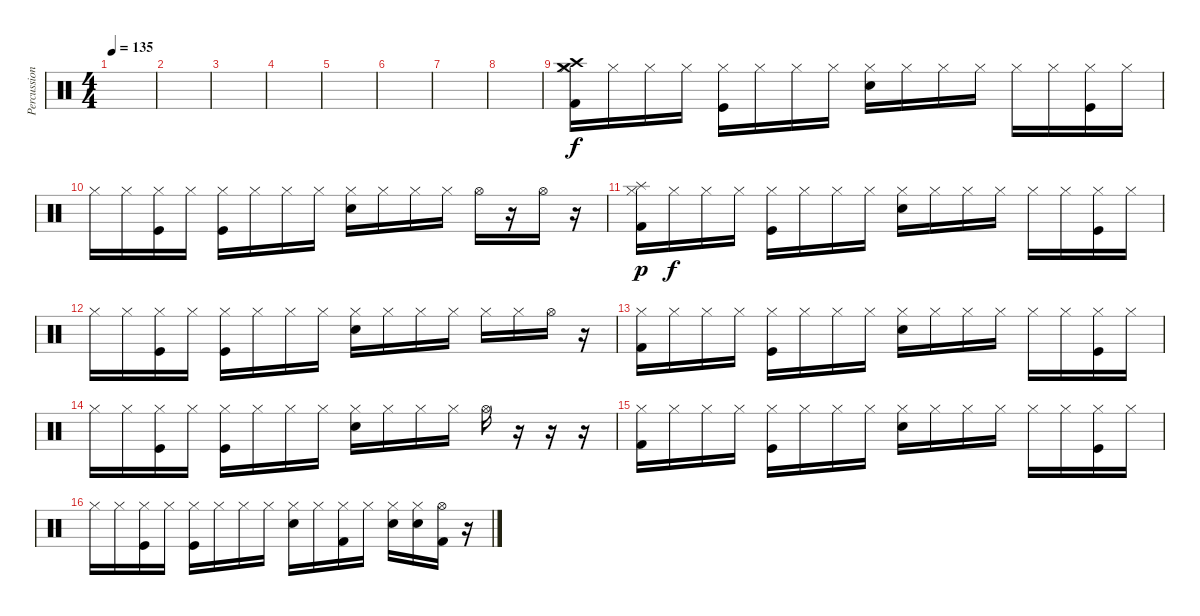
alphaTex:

\track ("Percussion" "Percussion") {instrument percussion}
\staff {score}
\articulation defaults
\ts (4 4)
\tempo 135
\clef neutral
\ks c
|
|
|
|
|
|
|
|
("Hi-Hat (closed)" "Crash high (hit)" "Crash medium (hit)" "Kick (hit) 2").16 "Hi-Hat (closed)".16 "Hi-Hat (closed)".16 "Hi-Hat (closed)".16 ("Hi-Hat (closed)" "Kick (hit)").16 "Hi-Hat (closed)".16 "Hi-Hat (closed)".16 "Hi-Hat (closed)".16 ("Hi-Hat (closed)" "Electric Snare (hit)").16 "Hi-Hat (closed)".16 "Hi-Hat (closed)".16 "Hi-Hat (closed)".16 "Hi-Hat (closed)".16 "Hi-Hat (closed)".16 ("Hi-Hat (closed)" "Kick (hit)").16 "Hi-Hat (closed)".16 |
"Hi-Hat (closed)".16 "Hi-Hat (closed)".16 ("Hi-Hat (closed)" "Kick (hit)").16 "Hi-Hat (closed)".16 ("Hi-Hat (closed)" "Kick (hit)").16 "Hi-Hat (closed)".16 "Hi-Hat (closed)".16 "Hi-Hat (closed)".16 ("Hi-Hat (closed)" "Electric Snare (hit)").16 "Hi-Hat (closed)".16 "Hi-Hat (closed)".16 "Hi-Hat (closed)".16 "Hi-Hat (open)".16 r.16 "Hi-Hat (open)".16 r.16 |
("Hi-Hat (closed)" "Splash (hit)" "Kick (hit) 2").16{dy p} "Hi-Hat (closed)".16{dy f} "Hi-Hat (closed)".16 "Hi-Hat (closed)".16 ("Hi-Hat (closed)" "Kick (hit)").16 "Hi-Hat (closed)".16 "Hi-Hat (closed)".16 "Hi-Hat (closed)".16 ("Hi-Hat (closed)" "Electric Snare (hit)").16 "Hi-Hat (closed)".16 "Hi-Hat (closed)".16 "Hi-Hat (closed)".16 "Hi-Hat (closed)".16 "Hi-Hat (closed)".16 ("Hi-Hat (closed)" "Kick (hit)").16 "Hi-Hat (closed)".16 |
"Hi-Hat (closed)".16 "Hi-Hat (closed)".16 ("Hi-Hat (closed)" "Kick (hit)").16 "Hi-Hat (closed)".16 ("Hi-Hat (closed)" "Kick (hit)").16 "Hi-Hat (closed)".16 "Hi-Hat (closed)".16 "Hi-Hat (closed)".16 ("Hi-Hat (closed)" "Electric Snare (hit)").16 "Hi-Hat (closed)".16 "Hi-Hat (closed)".16 "Hi-Hat (closed)".16 "Hi-Hat (closed)".16 "Hi-Hat (closed)".16 "Hi-Hat (open)".16 r.16 |
("Hi-Hat (closed)" "Kick (hit) 2").16 "Hi-Hat (closed)".16 "Hi-Hat (closed)".16 "Hi-Hat (closed)".16 ("Hi-Hat (closed)" "Kick (hit)").16 "Hi-Hat (closed)".16 "Hi-Hat (closed)".16 "Hi-Hat (closed)".16 ("Hi-Hat (closed)" "Electric Snare (hit)").16 "Hi-Hat (closed)".16 "Hi-Hat (closed)".16 "Hi-Hat (closed)".16 "Hi-Hat (closed)".16 "Hi-Hat (closed)".16 ("Hi-Hat (closed)" "Kick (hit)").16 "Hi-Hat (closed)".16 |
"Hi-Hat (closed)".16 "Hi-Hat (closed)".16 ("Hi-Hat (closed)" "Kick (hit)").16 "Hi-Hat (closed)".16 ("Hi-Hat (closed)" "Kick (hit)").16 "Hi-Hat (closed)".16 "Hi-Hat (closed)".16 "Hi-Hat (closed)".16 ("Hi-Hat (closed)" "Electric Snare (hit)").16 "Hi-Hat (closed)".16 "Hi-Hat (closed)".16 "Hi-Hat (closed)".16 "Hi-Hat (open)".16 r.16 r.16 r.16 |
("Hi-Hat (closed)" "Kick (hit) 2").16 "Hi-Hat (closed)".16 "Hi-Hat (closed)".16 "Hi-Hat (closed)".16 ("Hi-Hat (closed)" "Kick (hit)").16 "Hi-Hat (closed)".16 "Hi-Hat (closed)".16 "Hi-Hat (closed)".16 ("Hi-Hat (closed)" "Electric Snare (hit)").16 "Hi-Hat (closed)".16 "Hi-Hat (closed)".16 "Hi-Hat (closed)".16 "Hi-Hat (closed)".16 "Hi-Hat (closed)".16 ("Hi-Hat (closed)" "Kick (hit)").16 "Hi-Hat (closed)".16 |
"Hi-Hat (closed)".16 "Hi-Hat (closed)".16 ("Hi-Hat (closed)" "Kick (hit)").16 "Hi-Hat (closed)".16 ("Hi-Hat (closed)" "Kick (hit)").16 "Hi-Hat (closed)".16 "Hi-Hat (closed)".16 "Hi-Hat (closed)".16 ("Hi-Hat (closed)" "Electric Snare (hit)").16 "Hi-Hat (closed)".16 ("Hi-Hat (closed)" "Kick (hit) 2").16 "Hi-Hat (closed)".16 ("Hi-Hat (closed)" "Electric Snare (hit)").16 ("Hi-Hat (closed)" "Electric Snare (hit)").16 ("Hi-Hat (open)" "Kick (hit) 2").16 r.16
